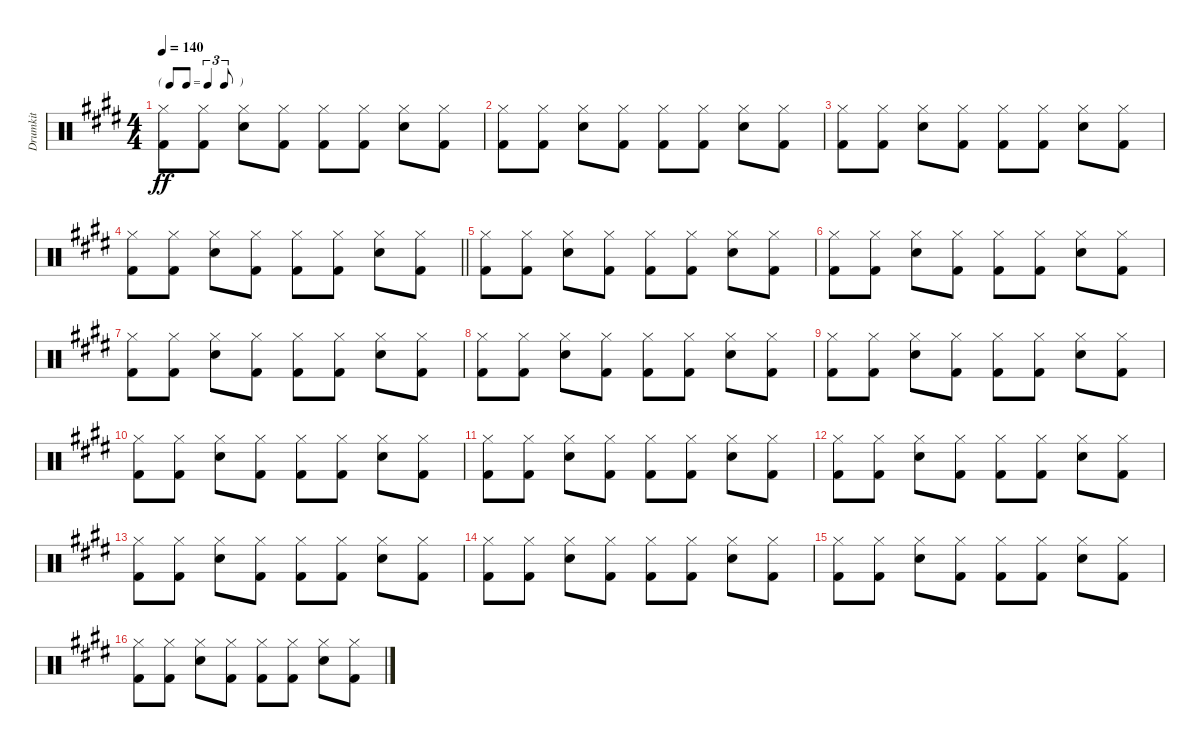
\track ("Drumkit" "Drumkit") {instrument percussion}
\staff {score}
\articulation defaults
\ts (4 4)
\tf triplet8th
\tempo 140
\clef neutral
\ks e
("Hi-Hat (closed)" "Kick (hit) 2").8{dy ff} ("Hi-Hat (closed)" "Kick (hit) 2").8 ("Hi-Hat (closed)" "Snare (hit) 2").8 ("Hi-Hat (closed)" "Kick (hit) 2").8 ("Hi-Hat (closed)" "Kick (hit) 2").8 ("Hi-Hat (closed)" "Kick (hit) 2").8 ("Hi-Hat (closed)" "Snare (hit) 2").8 ("Hi-Hat (closed)" "Kick (hit) 2").8 |
("Hi-Hat (closed)" "Kick (hit) 2").8 ("Hi-Hat (closed)" "Kick (hit) 2").8 ("Hi-Hat (closed)" "Snare (hit) 2").8 ("Hi-Hat (closed)" "Kick (hit) 2").8 ("Hi-Hat (closed)" "Kick (hit) 2").8 ("Hi-Hat (closed)" "Kick (hit) 2").8 ("Hi-Hat (closed)" "Snare (hit) 2").8 ("Hi-Hat (closed)" "Kick (hit) 2").8 |
("Hi-Hat (closed)" "Kick (hit) 2").8 ("Hi-Hat (closed)" "Kick (hit) 2").8 ("Hi-Hat (closed)" "Snare (hit) 2").8 ("Hi-Hat (closed)" "Kick (hit) 2").8 ("Hi-Hat (closed)" "Kick (hit) 2").8 ("Hi-Hat (closed)" "Kick (hit) 2").8 ("Hi-Hat (closed)" "Snare (hit) 2").8 ("Hi-Hat (closed)" "Kick (hit) 2").8 |
\barLineRight lightlight
("Hi-Hat (closed)" "Kick (hit) 2").8 ("Hi-Hat (closed)" "Kick (hit) 2").8 ("Hi-Hat (closed)" "Snare (hit) 2").8 ("Hi-Hat (closed)" "Kick (hit) 2").8 ("Hi-Hat (closed)" "Kick (hit) 2").8 ("Hi-Hat (closed)" "Kick (hit) 2").8 ("Hi-Hat (closed)" "Snare (hit) 2").8 ("Hi-Hat (closed)" "Kick (hit) 2").8 |
("Hi-Hat (closed)" "Kick (hit) 2").8 ("Hi-Hat (closed)" "Kick (hit) 2").8 ("Hi-Hat (closed)" "Snare (hit) 2").8 ("Hi-Hat (closed)" "Kick (hit) 2").8 ("Hi-Hat (closed)" "Kick (hit) 2").8 ("Hi-Hat (closed)" "Kick (hit) 2").8 ("Hi-Hat (closed)" "Snare (hit) 2").8 ("Hi-Hat (closed)" "Kick (hit) 2").8 |
("Hi-Hat (closed)" "Kick (hit) 2").8 ("Hi-Hat (closed)" "Kick (hit) 2").8 ("Hi-Hat (closed)" "Snare (hit) 2").8 ("Hi-Hat (closed)" "Kick (hit) 2").8 ("Hi-Hat (closed)" "Kick (hit) 2").8 ("Hi-Hat (closed)" "Kick (hit) 2").8 ("Hi-Hat (closed)" "Snare (hit) 2").8 ("Hi-Hat (closed)" "Kick (hit) 2").8 |
("Hi-Hat (closed)" "Kick (hit) 2").8 ("Hi-Hat (closed)" "Kick (hit) 2").8 ("Hi-Hat (closed)" "Snare (hit) 2").8 ("Hi-Hat (closed)" "Kick (hit) 2").8 ("Hi-Hat (closed)" "Kick (hit) 2").8 ("Hi-Hat (closed)" "Kick (hit) 2").8 ("Hi-Hat (closed)" "Snare (hit) 2").8 ("Hi-Hat (closed)" "Kick (hit) 2").8 |
("Hi-Hat (closed)" "Kick (hit) 2").8 ("Hi-Hat (closed)" "Kick (hit) 2").8 ("Hi-Hat (closed)" "Snare (hit) 2").8 ("Hi-Hat (closed)" "Kick (hit) 2").8 ("Hi-Hat (closed)" "Kick (hit) 2").8 ("Hi-Hat (closed)" "Kick (hit) 2").8 ("Hi-Hat (closed)" "Snare (hit) 2").8 ("Hi-Hat (closed)" "Kick (hit) 2").8 |
("Hi-Hat (closed)" "Kick (hit) 2").8 ("Hi-Hat (closed)" "Kick (hit) 2").8 ("Hi-Hat (closed)" "Snare (hit) 2").8 ("Hi-Hat (closed)" "Kick (hit) 2").8 ("Hi-Hat (closed)" "Kick (hit) 2").8 ("Hi-Hat (closed)" "Kick (hit) 2").8 ("Hi-Hat (closed)" "Snare (hit) 2").8 ("Hi-Hat (closed)" "Kick (hit) 2").8 |
("Hi-Hat (closed)" "Kick (hit) 2").8 ("Hi-Hat (closed)" "Kick (hit) 2").8 ("Hi-Hat (closed)" "Snare (hit) 2").8 ("Hi-Hat (closed)" "Kick (hit) 2").8 ("Hi-Hat (closed)" "Kick (hit) 2").8 ("Hi-Hat (closed)" "Kick (hit) 2").8 ("Hi-Hat (closed)" "Snare (hit) 2").8 ("Hi-Hat (closed)" "Kick (hit) 2").8 |
("Hi-Hat (closed)" "Kick (hit) 2").8 ("Hi-Hat (closed)" "Kick (hit) 2").8 ("Hi-Hat (closed)" "Snare (hit) 2").8 ("Hi-Hat (closed)" "Kick (hit) 2").8 ("Hi-Hat (closed)" "Kick (hit) 2").8 ("Hi-Hat (closed)" "Kick (hit) 2").8 ("Hi-Hat (closed)" "Snare (hit) 2").8 ("Hi-Hat (closed)" "Kick (hit) 2").8 |
("Hi-Hat (closed)" "Kick (hit) 2").8 ("Hi-Hat (closed)" "Kick (hit) 2").8 ("Hi-Hat (closed)" "Snare (hit) 2").8 ("Hi-Hat (closed)" "Kick (hit) 2").8 ("Hi-Hat (closed)" "Kick (hit) 2").8 ("Hi-Hat (closed)" "Kick (hit) 2").8 ("Hi-Hat (closed)" "Snare (hit) 2").8 ("Hi-Hat (closed)" "Kick (hit) 2").8 |
("Hi-Hat (closed)" "Kick (hit) 2").8 ("Hi-Hat (closed)" "Kick (hit) 2").8 ("Hi-Hat (closed)" "Snare (hit) 2").8 ("Hi-Hat (closed)" "Kick (hit) 2").8 ("Hi-Hat (closed)" "Kick (hit) 2").8 ("Hi-Hat (closed)" "Kick (hit) 2").8 ("Hi-Hat (closed)" "Snare (hit) 2").8 ("Hi-Hat (closed)" "Kick (hit) 2").8 |
("Hi-Hat (closed)" "Kick (hit) 2").8 ("Hi-Hat (closed)" "Kick (hit) 2").8 ("Hi-Hat (closed)" "Snare (hit) 2").8 ("Hi-Hat (closed)" "Kick (hit) 2").8 ("Hi-Hat (closed)" "Kick (hit) 2").8 ("Hi-Hat (closed)" "Kick (hit) 2").8 ("Hi-Hat (closed)" "Snare (hit) 2").8 ("Hi-Hat (closed)" "Kick (hit) 2").8 |
("Hi-Hat (closed)" "Kick (hit) 2").8 ("Hi-Hat (closed)" "Kick (hit) 2").8 ("Hi-Hat (closed)" "Snare (hit) 2").8 ("Hi-Hat (closed)" "Kick (hit) 2").8 ("Hi-Hat (closed)" "Kick (hit) 2").8 ("Hi-Hat (closed)" "Kick (hit) 2").8 ("Hi-Hat (closed)" "Snare (hit) 2").8 ("Hi-Hat (closed)" "Kick (hit) 2").8 |
("Hi-Hat (closed)" "Kick (hit) 2").8 ("Hi-Hat (closed)" "Kick (hit) 2").8 ("Hi-Hat (closed)" "Snare (hit) 2").8 ("Hi-Hat (closed)" "Kick (hit) 2").8 ("Hi-Hat (closed)" "Kick (hit) 2").8 ("Hi-Hat (closed)" "Kick (hit) 2").8 ("Hi-Hat (closed)" "Snare (hit) 2").8 ("Hi-Hat (closed)" "Kick (hit) 2").8
